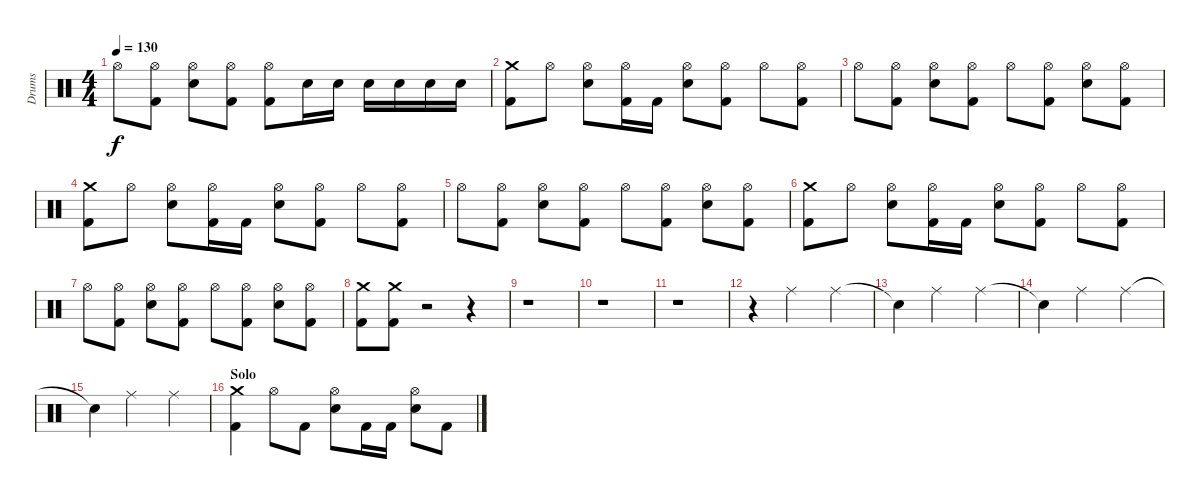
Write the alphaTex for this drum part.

\track ("Drums" "Drums") {instrument percussion}
\staff {score}
\articulation defaults
\ts (4 4)
\tempo 130
\clef neutral
\ks c "Hi-Hat (open)".8{dy f}
("Kick (hit) 2" "Hi-Hat (open)").8 ("Electric Snare (hit)" "Hi-Hat (open)").8 ("Kick (hit) 2" "Hi-Hat (open)").8 ("Kick (hit) 2" "Hi-Hat (open)").8 "Electric Snare (hit)".16 "Electric Snare (hit)".16 "Electric Snare (hit)".16 "Electric Snare (hit)".16 "Electric Snare (hit)".16 "Electric Snare (hit)".16 |
("Kick (hit) 2" "Crash medium (hit)").8 "Hi-Hat (open)".8 ("Electric Snare (hit)" "Hi-Hat (open)").8 ("Kick (hit) 2" "Hi-Hat (open)").16 "Kick (hit) 2".16 ("Electric Snare (hit)" "Hi-Hat (open)").8 ("Kick (hit) 2" "Hi-Hat (open)").8 "Hi-Hat (open)".8 ("Kick (hit) 2" "Hi-Hat (open)").8 |
"Hi-Hat (open)".8 ("Kick (hit) 2" "Hi-Hat (open)").8 ("Electric Snare (hit)" "Hi-Hat (open)").8 ("Kick (hit) 2" "Hi-Hat (open)").8 "Hi-Hat (open)".8 ("Kick (hit) 2" "Hi-Hat (open)").8 ("Electric Snare (hit)" "Hi-Hat (open)").8 ("Kick (hit) 2" "Hi-Hat (open)").8 |
("Kick (hit) 2" "Crash medium (hit)").8 "Hi-Hat (open)".8 ("Electric Snare (hit)" "Hi-Hat (open)").8 ("Kick (hit) 2" "Hi-Hat (open)").16 "Kick (hit) 2".16 ("Electric Snare (hit)" "Hi-Hat (open)").8 ("Kick (hit) 2" "Hi-Hat (open)").8 "Hi-Hat (open)".8 ("Kick (hit) 2" "Hi-Hat (open)").8 |
"Hi-Hat (open)".8 ("Kick (hit) 2" "Hi-Hat (open)").8 ("Electric Snare (hit)" "Hi-Hat (open)").8 ("Kick (hit) 2" "Hi-Hat (open)").8 "Hi-Hat (open)".8 ("Kick (hit) 2" "Hi-Hat (open)").8 ("Electric Snare (hit)" "Hi-Hat (open)").8 ("Kick (hit) 2" "Hi-Hat (open)").8 |
("Kick (hit) 2" "Crash medium (hit)").8 "Hi-Hat (open)".8 ("Electric Snare (hit)" "Hi-Hat (open)").8 ("Kick (hit) 2" "Hi-Hat (open)").16 "Kick (hit) 2".16 ("Electric Snare (hit)" "Hi-Hat (open)").8 ("Kick (hit) 2" "Hi-Hat (open)").8 "Hi-Hat (open)".8 ("Kick (hit) 2" "Hi-Hat (open)").8 |
"Hi-Hat (open)".8 ("Kick (hit) 2" "Hi-Hat (open)").8 ("Electric Snare (hit)" "Hi-Hat (open)").8 ("Kick (hit) 2" "Hi-Hat (open)").8 "Hi-Hat (open)".8 ("Kick (hit) 2" "Hi-Hat (open)").8 ("Electric Snare (hit)" "Hi-Hat (open)").8 ("Kick (hit) 2" "Hi-Hat (open)").8 |
("Kick (hit) 2" "Crash medium (hit)").8 ("Kick (hit) 2" "Crash medium (hit)").8 r.2 r.4 |
r.1 |
r.1 |
r.1 |
r.4 "Ride (middle)".2 "Ride (middle)".4 |
"Snare (hit)"{t}.4 "Ride (middle)".2 "Ride (middle)".4 |
"Snare (hit)"{t}.4 "Ride (middle)".2 "Ride (middle)".4 |
"Snare (hit)"{t}.4 "Ride (middle)".2 "Ride (middle)".4 |
\section ("" "Solo")
("Kick (hit) 2" "Crash medium (hit)").4 "Hi-Hat (open)".8 "Kick (hit) 2".8 ("Electric Snare (hit)" "Hi-Hat (open)").8 "Kick (hit) 2".16 "Kick (hit) 2".16 ("Electric Snare (hit)" "Hi-Hat (open)").8 "Kick (hit) 2".8
